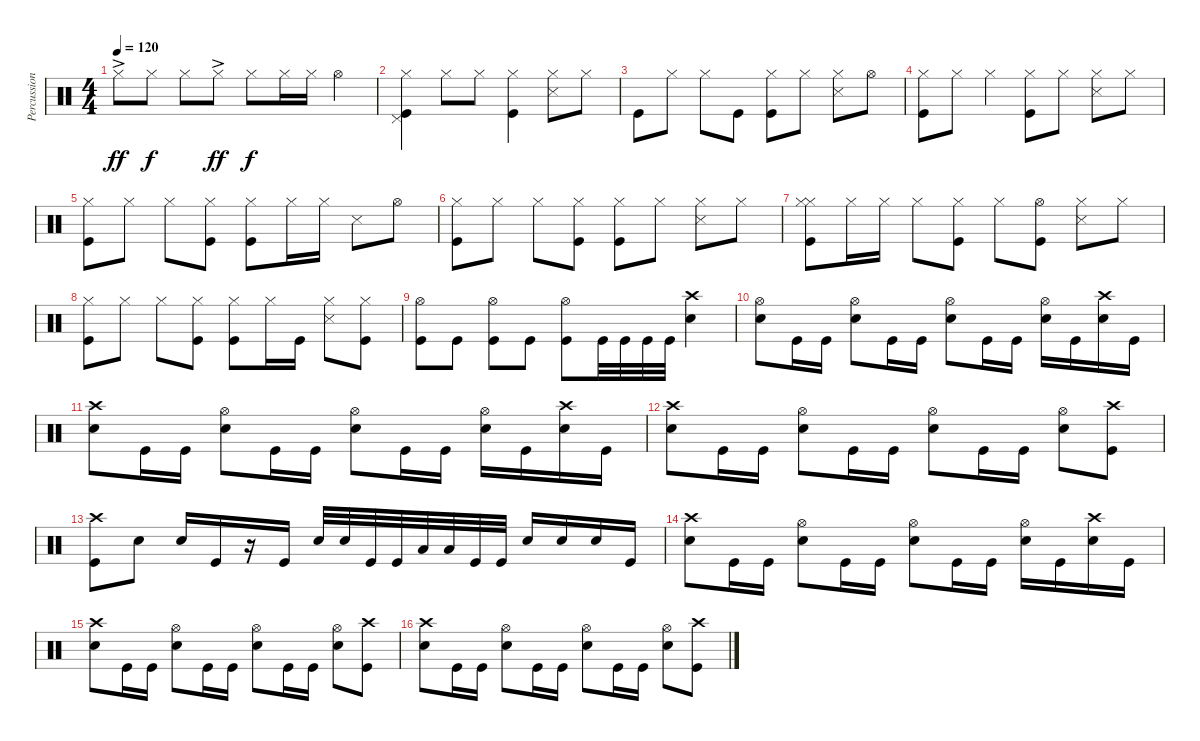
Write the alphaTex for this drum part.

\track ("Percussion" "Percussion") {instrument percussion}
\staff {score}
\articulation defaults
\ts (4 4)
\tempo 120
\clef neutral
\ks c "Hi-Hat (closed)"{ac}.8{dy ff} "Hi-Hat (closed)".8{dy f} "Hi-Hat (closed)".8 "Hi-Hat (closed)"{ac}.8{dy ff} "Hi-Hat (closed)".8{dy f} "Hi-Hat (closed)".16 "Hi-Hat (closed)".16 "Hi-Hat (open)".4
|
("Pedal Hi-Hat (hit)" "Kick (hit)" "Hi-Hat (closed)").4 "Hi-Hat (closed)".8 "Hi-Hat (closed)".8 ("Kick (hit)" "Hi-Hat (closed)").4 ("Hi-Hat (closed)" "Snare (side stick) 3").8 "Hi-Hat (closed)".8 |
"Kick (hit)".8 "Hi-Hat (closed)".8 "Hi-Hat (closed)".8 "Kick (hit)".8 ("Hi-Hat (closed)" "Kick (hit)").8 "Hi-Hat (closed)".8 ("Snare (side stick) 3" "Hi-Hat (closed)").8 "Hi-Hat (open)".8 |
("Kick (hit)" "Hi-Hat (closed)").8 "Hi-Hat (closed)".8 "Hi-Hat (closed)".4 ("Hi-Hat (closed)" "Kick (hit)").8 "Hi-Hat (closed)".8 ("Hi-Hat (closed)" "Snare (side stick) 3").8 "Hi-Hat (closed)".8 |
("Kick (hit)" "Hi-Hat (closed)").8 "Hi-Hat (closed)".8 "Hi-Hat (closed)".8 ("Hi-Hat (closed)" "Kick (hit)").8 ("Hi-Hat (closed)" "Kick (hit)").8 "Hi-Hat (closed)".16 "Hi-Hat (closed)".16 "Snare (side stick) 3".8 "Hi-Hat (open)".8 |
("Kick (hit)" "Hi-Hat (closed)").8 "Hi-Hat (closed)".8 "Hi-Hat (closed)".8 ("Kick (hit)" "Hi-Hat (closed)").8 ("Hi-Hat (closed)" "Kick (hit)").8 "Hi-Hat (closed)".8 ("Hi-Hat (closed)" "Snare (side stick) 3").8 "Hi-Hat (closed)".8 |
("Kick (hit)" "Hi-Hat (closed)" "Hi-Hat (closed)").8 "Hi-Hat (closed)".16 "Hi-Hat (closed)".16 "Hi-Hat (closed)".8 ("Kick (hit)" "Hi-Hat (closed)").8 "Hi-Hat (closed)".8 ("Hi-Hat (open)" "Kick (hit)").8 ("Hi-Hat (closed)" "Snare (side stick) 3").8 "Hi-Hat (closed)".8 |
("Hi-Hat (closed)" "Kick (hit)").8 "Hi-Hat (closed)".8 "Hi-Hat (closed)".8 ("Hi-Hat (closed)" "Kick (hit)").8 ("Hi-Hat (closed)" "Kick (hit)").8 "Hi-Hat (closed)".16 "Kick (hit)".16 ("Snare (side stick) 3" "Hi-Hat (closed)").8 ("Hi-Hat (closed)" "Kick (hit)").8 |
("Kick (hit)" "Hi-Hat (open)").8 "Kick (hit)".8 ("Kick (hit)" "Hi-Hat (open)").8 "Kick (hit)".8 ("Kick (hit)" "Hi-Hat (open)").8 "Kick (hit)".32 "Kick (hit)".32 "Kick (hit)".32 "Kick (hit)".32 ("Snare (hit) 2" "Crash high (hit)").4 |
("Snare (hit) 2" "Hi-Hat (open)").8 "Kick (hit)".16 "Kick (hit)".16 ("Snare (hit) 2" "Hi-Hat (open)").8 "Kick (hit)".16 "Kick (hit)".16 ("Snare (hit) 2" "Hi-Hat (open)").8 "Kick (hit)".16 "Kick (hit)".16 ("Snare (hit) 2" "Hi-Hat (open)").16 "Kick (hit)".16 ("Crash high (hit)" "Snare (hit) 2").16 "Kick (hit)".16 |
("Snare (hit) 2" "Crash high (hit)").8 "Kick (hit)".16 "Kick (hit)".16 ("Snare (hit) 2" "Hi-Hat (open)").8 "Kick (hit)".16 "Kick (hit)".16 ("Snare (hit) 2" "Hi-Hat (open)").8 "Kick (hit)".16 "Kick (hit)".16 ("Snare (hit) 2" "Hi-Hat (open)").16 "Kick (hit)".16 ("Crash high (hit)" "Snare (hit) 2").16 "Kick (hit)".16 |
("Snare (hit) 2" "Crash high (hit)").8 "Kick (hit)".16 "Kick (hit)".16 ("Snare (hit) 2" "Hi-Hat (open)").8 "Kick (hit)".16 "Kick (hit)".16 ("Snare (hit) 2" "Hi-Hat (open)").8 "Kick (hit)".16 "Kick (hit)".16 ("Snare (hit) 2" "Hi-Hat (open)").8 ("Crash high (hit)" "Kick (hit)").8 |
("Crash high (hit)" "Kick (hit)").8 "Snare (hit) 2".8 "Snare (hit) 2".16 "Kick (hit)".16 r.16 "Kick (hit)".16 "Snare (hit) 2".32 "Snare (hit) 2".32 "Kick (hit)".32 "Kick (hit)".32 "Low Floor Tom (hit)".32 "Low Floor Tom (hit)".32 "Kick (hit)".32 "Kick (hit)".32 "Snare (hit) 2".16 "Snare (hit) 2".16 "Snare (hit) 2".16 "Kick (hit)".16 |
("Snare (hit) 2" "Crash high (hit)").8 "Kick (hit)".16 "Kick (hit)".16 ("Snare (hit) 2" "Hi-Hat (open)").8 "Kick (hit)".16 "Kick (hit)".16 ("Snare (hit) 2" "Hi-Hat (open)").8 "Kick (hit)".16 "Kick (hit)".16 ("Snare (hit) 2" "Hi-Hat (open)").16 "Kick (hit)".16 ("Crash high (hit)" "Snare (hit) 2").16 "Kick (hit)".16 |
("Snare (hit) 2" "Crash high (hit)").8 "Kick (hit)".16 "Kick (hit)".16 ("Snare (hit) 2" "Hi-Hat (open)").8 "Kick (hit)".16 "Kick (hit)".16 ("Snare (hit) 2" "Hi-Hat (open)").8 "Kick (hit)".16 "Kick (hit)".16 ("Snare (hit) 2" "Hi-Hat (open)").8 ("Crash high (hit)" "Kick (hit)").8 |
("Snare (hit) 2" "Crash high (hit)").8 "Kick (hit)".16 "Kick (hit)".16 ("Snare (hit) 2" "Hi-Hat (open)").8 "Kick (hit)".16 "Kick (hit)".16 ("Snare (hit) 2" "Hi-Hat (open)").8 "Kick (hit)".16 "Kick (hit)".16 ("Snare (hit) 2" "Hi-Hat (open)").8 ("Crash high (hit)" "Kick (hit)").8
